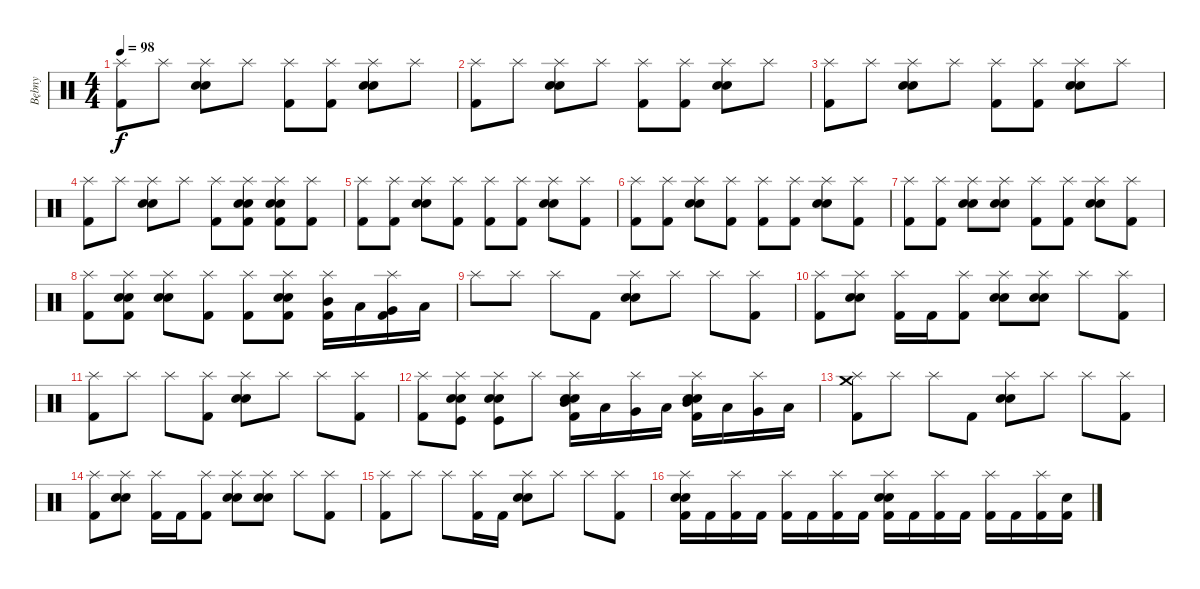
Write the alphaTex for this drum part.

\track ("Bębny" "Bębny") {instrument percussion}
\staff {score}
\articulation defaults
\ts (4 4)
\tempo 98
\clef neutral
\ks c
("Splash (hit)" "Kick (hit) 2").8{dy f} "Splash (hit)".8 ("Splash (hit)" "Electric Snare (hit)" "Snare (hit) 2").8 "Splash (hit)".8 ("Splash (hit)" "Kick (hit) 2").8 ("Splash (hit)" "Kick (hit) 2").8 ("Splash (hit)" "Electric Snare (hit)" "Snare (hit) 2").8 "Splash (hit)".8 |
("Splash (hit)" "Kick (hit) 2").8 "Splash (hit)".8 ("Splash (hit)" "Electric Snare (hit)" "Snare (hit) 2").8 "Splash (hit)".8 ("Splash (hit)" "Kick (hit) 2").8 ("Splash (hit)" "Kick (hit) 2").8 ("Splash (hit)" "Electric Snare (hit)" "Snare (hit) 2").8 "Splash (hit)".8 |
("Splash (hit)" "Kick (hit) 2").8 "Splash (hit)".8 ("Splash (hit)" "Electric Snare (hit)" "Snare (hit) 2").8 "Splash (hit)".8 ("Splash (hit)" "Kick (hit) 2").8 ("Splash (hit)" "Kick (hit) 2").8 ("Splash (hit)" "Electric Snare (hit)" "Snare (hit) 2").8 "Splash (hit)".8 |
("Splash (hit)" "Kick (hit) 2").8 "Splash (hit)".8 ("Splash (hit)" "Electric Snare (hit)" "Snare (hit) 2").8 "Splash (hit)".8 ("Splash (hit)" "Kick (hit) 2").8 ("Splash (hit)" "Electric Snare (hit)" "Snare (hit) 2" "Kick (hit) 2").8 ("Splash (hit)" "Electric Snare (hit)" "Snare (hit) 2" "Kick (hit) 2").8 ("Splash (hit)" "Kick (hit) 2").8 |
("Splash (hit)" "Kick (hit) 2").8 ("Splash (hit)" "Kick (hit) 2").8 ("Splash (hit)" "Electric Snare (hit)" "Snare (hit) 2").8 ("Splash (hit)" "Kick (hit) 2").8 ("Splash (hit)" "Kick (hit) 2").8 ("Splash (hit)" "Kick (hit) 2").8 ("Splash (hit)" "Electric Snare (hit)" "Snare (hit) 2").8 ("Splash (hit)" "Kick (hit) 2").8 |
("Splash (hit)" "Kick (hit) 2").8 ("Splash (hit)" "Kick (hit) 2").8 ("Splash (hit)" "Electric Snare (hit)" "Snare (hit) 2").8 ("Splash (hit)" "Kick (hit) 2").8 ("Splash (hit)" "Kick (hit) 2").8 ("Splash (hit)" "Kick (hit) 2").8 ("Splash (hit)" "Electric Snare (hit)" "Snare (hit) 2").8 ("Splash (hit)" "Kick (hit) 2").8 |
("Splash (hit)" "Kick (hit) 2").8 ("Splash (hit)" "Kick (hit) 2").8 ("Splash (hit)" "Electric Snare (hit)" "Snare (hit) 2").8 ("Splash (hit)" "Electric Snare (hit)" "Snare (hit) 2").8 ("Splash (hit)" "Kick (hit) 2").8 ("Splash (hit)" "Kick (hit) 2").8 ("Splash (hit)" "Electric Snare (hit)" "Snare (hit) 2").8 ("Splash (hit)" "Kick (hit) 2").8 |
("Splash (hit)" "Kick (hit) 2").8 ("Splash (hit)" "Electric Snare (hit)" "Snare (hit) 2" "Kick (hit) 2").8 ("Splash (hit)" "Electric Snare (hit)" "Snare (hit) 2").8 ("Splash (hit)" "Kick (hit) 2").8 ("Splash (hit)" "Kick (hit) 2").8 ("Splash (hit)" "Electric Snare (hit)" "Snare (hit) 2" "Kick (hit) 2").8 ("Splash (hit)" "Mid Tom (hit)" "Kick (hit) 2").16 "Low Tom (hit)".16 ("Splash (hit)" "Very Low Tom (hit)" "Kick (hit) 2").16 "Low Floor Tom (hit)".16 |
"Splash (hit)".8 "Splash (hit)".8 "Splash (hit)".8 "Kick (hit) 2".8 ("Splash (hit)" "Electric Snare (hit)" "Snare (hit) 2").8 "Splash (hit)".8 "Splash (hit)".8 ("Splash (hit)" "Kick (hit) 2").8 |
("Splash (hit)" "Kick (hit) 2").8 ("Splash (hit)" "Electric Snare (hit)" "Snare (hit) 2").8 ("Splash (hit)" "Kick (hit) 2").16 "Kick (hit) 2".16 ("Splash (hit)" "Kick (hit) 2").8 ("Splash (hit)" "Electric Snare (hit)" "Snare (hit) 2").8 ("Splash (hit)" "Electric Snare (hit)" "Snare (hit) 2").8 "Splash (hit)".8 ("Splash (hit)" "Kick (hit) 2").8 |
("Splash (hit)" "Kick (hit) 2").8 "Splash (hit)".8 "Splash (hit)".8 ("Splash (hit)" "Kick (hit) 2").8 ("Splash (hit)" "Electric Snare (hit)" "Snare (hit) 2").8 "Splash (hit)".8 "Splash (hit)".8 ("Splash (hit)" "Kick (hit) 2").8 |
("Splash (hit)" "Kick (hit) 2").8 ("Splash (hit)" "Electric Snare (hit)" "Snare (hit) 2" "Kick (hit)").8 ("Splash (hit)" "Electric Snare (hit)" "Snare (hit) 2" "Kick (hit)").8 "Splash (hit)".8 ("Splash (hit)" "Mid Tom (hit)" "Electric Snare (hit)" "Snare (hit) 2" "Kick (hit) 2").16 "Low Tom (hit)".16 ("Splash (hit)" "Very Low Tom (hit)").16 "Low Floor Tom (hit)".16 ("Splash (hit)" "Mid Tom (hit)" "Electric Snare (hit)" "Snare (hit) 2" "Kick (hit) 2").16 "Low Tom (hit)".16 ("Splash (hit)" "Very Low Tom (hit)").16 "Low Floor Tom (hit)".16 |
("Crash medium (hit)" "Splash (hit)" "Kick (hit) 2").8 "Splash (hit)".8 "Splash (hit)".8 "Kick (hit) 2".8 ("Splash (hit)" "Electric Snare (hit)" "Snare (hit) 2").8 "Splash (hit)".8 "Splash (hit)".8 ("Splash (hit)" "Kick (hit) 2").8 |
("Splash (hit)" "Kick (hit) 2").8 ("Splash (hit)" "Electric Snare (hit)" "Snare (hit) 2").8 ("Splash (hit)" "Kick (hit) 2").16 "Kick (hit) 2".16 ("Splash (hit)" "Kick (hit) 2").8 ("Splash (hit)" "Electric Snare (hit)" "Snare (hit) 2").8 ("Splash (hit)" "Electric Snare (hit)" "Snare (hit) 2").8 "Splash (hit)".8 ("Splash (hit)" "Kick (hit) 2").8 |
("Splash (hit)" "Kick (hit) 2").8 "Splash (hit)".8 "Splash (hit)".8 ("Splash (hit)" "Kick (hit) 2").16 "Kick (hit) 2".16 ("Splash (hit)" "Electric Snare (hit)" "Snare (hit) 2").8 "Splash (hit)".8 "Splash (hit)".8 ("Splash (hit)" "Kick (hit) 2").8 |
("Splash (hit)" "Electric Snare (hit)" "Snare (hit) 2" "Kick (hit) 2").16 "Kick (hit) 2".16 ("Splash (hit)" "Kick (hit) 2").16 "Kick (hit) 2".16 ("Splash (hit)" "Kick (hit) 2").16 "Kick (hit) 2".16 ("Splash (hit)" "Kick (hit) 2").16 "Kick (hit) 2".16 ("Splash (hit)" "Electric Snare (hit)" "Snare (hit) 2" "Kick (hit) 2").16 "Kick (hit) 2".16 ("Splash (hit)" "Kick (hit) 2").16 "Kick (hit) 2".16 ("Splash (hit)" "Kick (hit) 2").16 "Kick (hit) 2".16 ("Splash (hit)" "Kick (hit) 2").16 ("Electric Snare (hit)" "Kick (hit) 2").16
